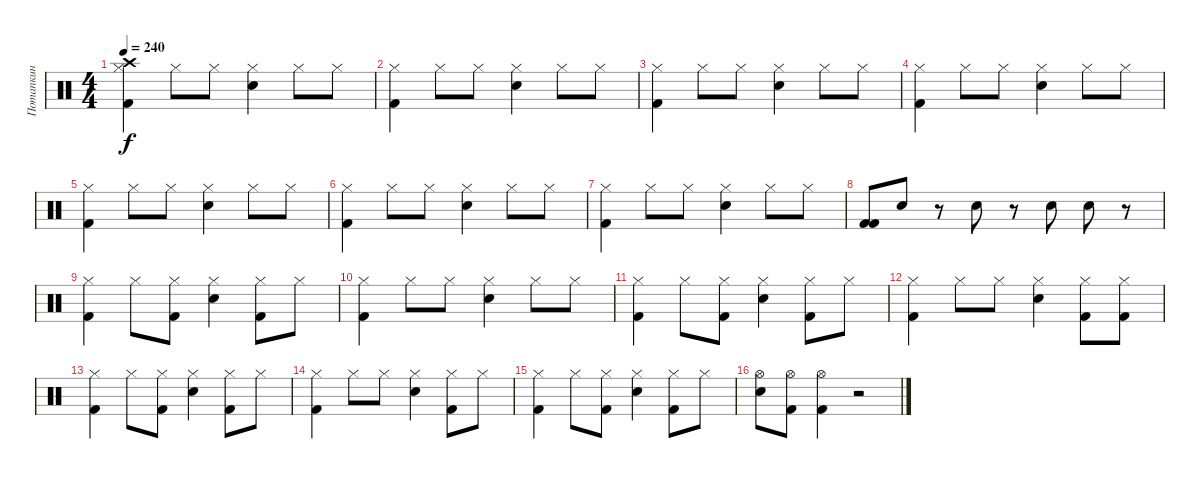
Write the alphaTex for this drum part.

\track ("Потапкин" "Потапкин") {instrument percussion}
\staff {score}
\articulation defaults
\ts (4 4)
\tempo 240
\clef neutral
\ks c
("Crash high (hit)" "Hi-Hat (closed)" "Kick (hit) 2").4{dy f} "Hi-Hat (closed)".8 "Hi-Hat (closed)".8 ("Hi-Hat (closed)" "Electric Snare (hit)").4 "Hi-Hat (closed)".8 "Hi-Hat (closed)".8 |
("Hi-Hat (closed)" "Kick (hit) 2").4 "Hi-Hat (closed)".8 "Hi-Hat (closed)".8 ("Hi-Hat (closed)" "Electric Snare (hit)").4 "Hi-Hat (closed)".8 "Hi-Hat (closed)".8 |
("Hi-Hat (closed)" "Kick (hit) 2").4 "Hi-Hat (closed)".8 "Hi-Hat (closed)".8 ("Hi-Hat (closed)" "Electric Snare (hit)").4 "Hi-Hat (closed)".8 "Hi-Hat (closed)".8 |
("Hi-Hat (closed)" "Kick (hit) 2").4 "Hi-Hat (closed)".8 "Hi-Hat (closed)".8 ("Hi-Hat (closed)" "Electric Snare (hit)").4 "Hi-Hat (closed)".8 "Hi-Hat (closed)".8 |
("Hi-Hat (closed)" "Kick (hit) 2").4 "Hi-Hat (closed)".8 "Hi-Hat (closed)".8 ("Hi-Hat (closed)" "Electric Snare (hit)").4 "Hi-Hat (closed)".8 "Hi-Hat (closed)".8 |
("Hi-Hat (closed)" "Kick (hit) 2").4 "Hi-Hat (closed)".8 "Hi-Hat (closed)".8 ("Hi-Hat (closed)" "Electric Snare (hit)").4 "Hi-Hat (closed)".8 "Hi-Hat (closed)".8 |
("Hi-Hat (closed)" "Kick (hit) 2").4 "Hi-Hat (closed)".8 "Hi-Hat (closed)".8 ("Hi-Hat (closed)" "Electric Snare (hit)").4 "Hi-Hat (closed)".8 "Hi-Hat (closed)".8 |
("Kick (hit) 2" "Kick (hit) 2").8 "Electric Snare (hit)".8 r.8 "Electric Snare (hit)".8 r.8 "Electric Snare (hit)".8 "Electric Snare (hit)".8 r.8 |
("Hi-Hat (closed)" "Kick (hit) 2").4 "Hi-Hat (closed)".8 ("Hi-Hat (closed)" "Kick (hit) 2").8 ("Hi-Hat (closed)" "Electric Snare (hit)").4 ("Kick (hit) 2" "Hi-Hat (closed)").8 "Hi-Hat (closed)".8 |
("Hi-Hat (closed)" "Kick (hit) 2").4 "Hi-Hat (closed)".8 "Hi-Hat (closed)".8 ("Hi-Hat (closed)" "Electric Snare (hit)").4 "Hi-Hat (closed)".8 "Hi-Hat (closed)".8 |
("Hi-Hat (closed)" "Kick (hit) 2").4 "Hi-Hat (closed)".8 ("Hi-Hat (closed)" "Kick (hit) 2").8 ("Hi-Hat (closed)" "Electric Snare (hit)").4 ("Kick (hit) 2" "Hi-Hat (closed)").8 "Hi-Hat (closed)".8 |
("Hi-Hat (closed)" "Kick (hit) 2").4 "Hi-Hat (closed)".8 "Hi-Hat (closed)".8 ("Hi-Hat (closed)" "Electric Snare (hit)").4 ("Kick (hit) 2" "Hi-Hat (closed)").8 ("Hi-Hat (closed)" "Kick (hit) 2").8 |
("Hi-Hat (closed)" "Kick (hit) 2").4 "Hi-Hat (closed)".8 ("Hi-Hat (closed)" "Kick (hit) 2").8 ("Hi-Hat (closed)" "Electric Snare (hit)").4 ("Kick (hit) 2" "Hi-Hat (closed)").8 "Hi-Hat (closed)".8 |
("Hi-Hat (closed)" "Kick (hit) 2").4 "Hi-Hat (closed)".8 "Hi-Hat (closed)".8 ("Hi-Hat (closed)" "Electric Snare (hit)").4 ("Kick (hit) 2" "Hi-Hat (closed)").8 "Hi-Hat (closed)".8 |
("Hi-Hat (closed)" "Kick (hit) 2").4 "Hi-Hat (closed)".8 ("Hi-Hat (closed)" "Kick (hit) 2").8 ("Hi-Hat (closed)" "Electric Snare (hit)").4 ("Kick (hit) 2" "Hi-Hat (closed)").8 "Hi-Hat (closed)".8 |
("Hi-Hat (open)" "Electric Snare (hit)").8 ("Kick (hit) 2" "Hi-Hat (open)").8 ("Kick (hit) 2" "Hi-Hat (open)").4 r.2
